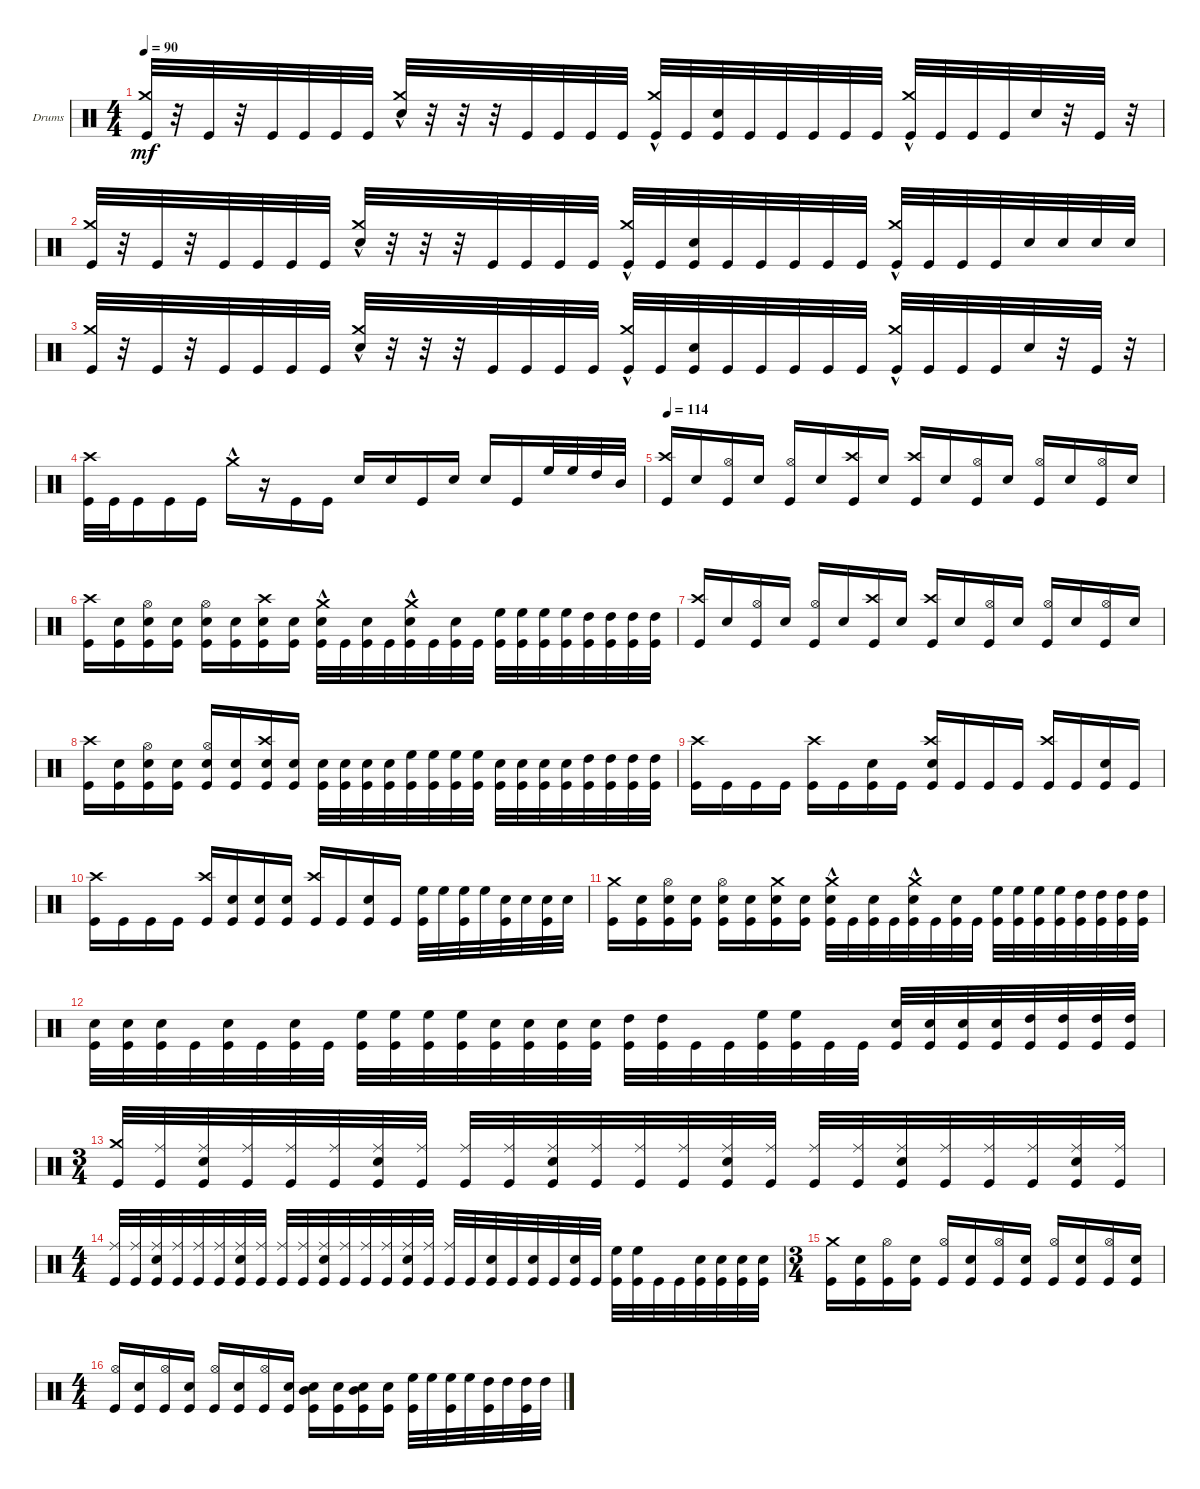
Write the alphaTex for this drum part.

\defaultSystemsLayout 4
\bracketExtendMode groupsimilarinstruments
\firstSystemTrackNameOrientation horizontal
\otherSystemsTrackNameOrientation horizontal
\track ("Drumkit" "Drums") {instrument percussion}
\staff {score}
\articulation defaults
\ts (4 4)
\tempo 90
\clef neutral
\ks c
("Kick (hit)" "Crash medium (hit)").32{dy mf beam invert} r.32 "Kick (hit)".32 r.32 "Kick (hit)".32 "Kick (hit)".32 "Kick (hit)".32 "Kick (hit)".32 ("Snare (hit) 2" "Crash medium (hit)"{hac}).32 r.32 r.32 r.32 "Kick (hit)".32 "Kick (hit)".32 "Kick (hit)".32 "Kick (hit)".32 ("Kick (hit)" "Crash medium (hit)"{hac}).32{beam invert} "Kick (hit)".32 ("Kick (hit)" "Snare (hit) 2").32 "Kick (hit)".32 "Kick (hit)".32 "Kick (hit)".32 "Kick (hit)".32 "Kick (hit)".32 ("Kick (hit)" "Crash medium (hit)"{hac}).32{beam invert} "Kick (hit)".32 "Kick (hit)".32 "Kick (hit)".32 "Snare (hit) 2".32 r.32 "Kick (hit)".32 r.32 |
("Kick (hit)" "Crash medium (hit)").32{beam invert} r.32 "Kick (hit)".32 r.32 "Kick (hit)".32 "Kick (hit)".32 "Kick (hit)".32 "Kick (hit)".32 ("Snare (hit) 2" "Crash medium (hit)"{hac}).32 r.32 r.32 r.32 "Kick (hit)".32 "Kick (hit)".32 "Kick (hit)".32 "Kick (hit)".32 ("Kick (hit)" "Crash medium (hit)"{hac}).32{beam invert} "Kick (hit)".32 ("Kick (hit)" "Snare (hit) 2").32 "Kick (hit)".32 "Kick (hit)".32 "Kick (hit)".32 "Kick (hit)".32 "Kick (hit)".32 ("Kick (hit)" "Crash medium (hit)"{hac}).32{beam invert} "Kick (hit)".32 "Kick (hit)".32 "Kick (hit)".32 "Snare (hit) 2".32 "Snare (hit) 2".32 "Snare (hit) 2".32 "Snare (hit) 2".32 |
("Kick (hit)" "Crash medium (hit)").32{beam invert} r.32 "Kick (hit)".32 r.32 "Kick (hit)".32 "Kick (hit)".32 "Kick (hit)".32 "Kick (hit)".32 ("Snare (hit) 2" "Crash medium (hit)"{hac}).32 r.32 r.32 r.32 "Kick (hit)".32 "Kick (hit)".32 "Kick (hit)".32 "Kick (hit)".32 ("Kick (hit)" "Crash medium (hit)"{hac}).32{beam invert} "Kick (hit)".32 ("Kick (hit)" "Snare (hit) 2").32 "Kick (hit)".32 "Kick (hit)".32 "Kick (hit)".32 "Kick (hit)".32 "Kick (hit)".32 ("Kick (hit)" "Crash medium (hit)"{hac}).32{beam invert} "Kick (hit)".32 "Kick (hit)".32 "Kick (hit)".32 "Snare (hit) 2".32 r.32 "Kick (hit)".32 r.32 |
("Kick (hit)" "Crash high (hit)").32 "Kick (hit)".32 "Kick (hit)".16 "Kick (hit)".16 "Kick (hit)".16 "Crash medium (hit)"{hac}.16 r.16 "Kick (hit)".16 "Kick (hit)".16 "Snare (hit) 2".16 "Snare (hit) 2".16 "Kick (hit)".16 "Snare (hit) 2".16 "Snare (hit) 2".16 "Kick (hit)".16 "High Floor Tom (hit)".32 "High Floor Tom (hit)".32 "High Tom (hit)".32 "Mid Tom (hit)".32 |
\tempo (114 0.00625)
("Kick (hit)" "Crash high (hit)").16{beam invert} "Snare (hit) 2".16 ("Kick (hit)" "Hi-Hat (open)").16 "Snare (hit) 2".16 ("Hi-Hat (open)" "Kick (hit)").16{beam invert} "Snare (hit) 2".16 ("Kick (hit)" "Crash high (hit)").16 "Snare (hit) 2".16 ("Kick (hit)" "Crash high (hit)").16{beam invert} "Snare (hit) 2".16 ("Kick (hit)" "Hi-Hat (open)").16 "Snare (hit) 2".16 ("Hi-Hat (open)" "Kick (hit)").16{beam invert} "Snare (hit) 2".16 ("Hi-Hat (open)" "Kick (hit)").16 "Snare (hit) 2".16 |
("Kick (hit)" "Crash high (hit)").16 ("Snare (hit) 2" "Kick (hit)").16 ("Kick (hit)" "Hi-Hat (open)" "Snare (hit) 2").16 ("Snare (hit) 2" "Kick (hit)").16 ("Hi-Hat (open)" "Kick (hit)" "Snare (hit) 2").16 ("Snare (hit) 2" "Kick (hit)").16 ("Kick (hit)" "Snare (hit) 2" "Crash high (hit)").16 ("Snare (hit) 2" "Kick (hit)").16 ("Snare (hit) 2" "Kick (hit)" "Crash medium (hit)"{hac}).32 "Kick (hit)".32 ("Kick (hit)" "Snare (hit) 2").32 "Kick (hit)".32 ("Kick (hit)" "Snare (hit) 2" "Crash medium (hit)"{hac}).32 "Kick (hit)".32 ("Kick (hit)" "Snare (hit) 2").32 "Kick (hit)".32 ("Kick (hit)" "High Floor Tom (hit)").32{beam invert} ("Kick (hit)" "High Floor Tom (hit)").32 ("Kick (hit)" "High Floor Tom (hit)").32 ("Kick (hit)" "High Floor Tom (hit)").32 ("Kick (hit)" "High Tom (hit)").32 ("Kick (hit)" "High Tom (hit)").32 ("Kick (hit)" "High Tom (hit)").32 ("Kick (hit)" "High Tom (hit)").32 |
("Kick (hit)" "Crash high (hit)").16{beam invert} "Snare (hit) 2".16 ("Kick (hit)" "Hi-Hat (open)").16 "Snare (hit) 2".16 ("Hi-Hat (open)" "Kick (hit)").16{beam invert} "Snare (hit) 2".16 ("Kick (hit)" "Crash high (hit)").16 "Snare (hit) 2".16 ("Kick (hit)" "Crash high (hit)").16{beam invert} "Snare (hit) 2".16 ("Kick (hit)" "Hi-Hat (open)").16 "Snare (hit) 2".16 ("Hi-Hat (open)" "Kick (hit)").16{beam invert} "Snare (hit) 2".16 ("Hi-Hat (open)" "Kick (hit)").16 "Snare (hit) 2".16 |
("Kick (hit)" "Crash high (hit)").16 ("Snare (hit) 2" "Kick (hit)").16 ("Kick (hit)" "Hi-Hat (open)" "Snare (hit) 2").16 ("Snare (hit) 2" "Kick (hit)").16 ("Hi-Hat (open)" "Kick (hit)" "Snare (hit) 2").16 ("Snare (hit) 2" "Kick (hit)").16 ("Kick (hit)" "Snare (hit) 2" "Crash high (hit)").16 ("Snare (hit) 2" "Kick (hit)").16 ("Snare (hit) 2" "Kick (hit)").32{beam invert} ("Kick (hit)" "Snare (hit) 2").32 ("Kick (hit)" "Snare (hit) 2").32 ("Kick (hit)" "Snare (hit) 2").32 ("Kick (hit)" "High Floor Tom (hit)").32 ("Kick (hit)" "High Floor Tom (hit)").32 ("Kick (hit)" "High Floor Tom (hit)").32 ("Kick (hit)" "High Floor Tom (hit)").32 ("Kick (hit)" "Snare (hit) 2").32{beam invert} ("Kick (hit)" "Snare (hit) 2").32 ("Kick (hit)" "Snare (hit) 2").32 ("Kick (hit)" "Snare (hit) 2").32 ("Kick (hit)" "High Tom (hit)").32 ("Kick (hit)" "High Tom (hit)").32 ("Kick (hit)" "High Tom (hit)").32 ("Kick (hit)" "High Tom (hit)").32 |
("Kick (hit)" "Crash high (hit)").16 "Kick (hit)".16 "Kick (hit)".16 "Kick (hit)".16 ("Kick (hit)" "Crash high (hit)").16 "Kick (hit)".16 ("Kick (hit)" "Snare (hit) 2").16 "Kick (hit)".16 ("Kick (hit)" "Snare (hit) 2" "Crash high (hit)").16 "Kick (hit)".16 "Kick (hit)".16 "Kick (hit)".16 ("Kick (hit)" "Crash high (hit)").16{beam invert} "Kick (hit)".16 ("Kick (hit)" "Snare (hit) 2").16 "Kick (hit)".16 |
("Kick (hit)" "Crash high (hit)").16 "Kick (hit)".16 "Kick (hit)".16 "Kick (hit)".16 ("Kick (hit)" "Crash high (hit)").16 ("Kick (hit)" "Snare (hit) 2").16 ("Kick (hit)" "Snare (hit) 2").16 ("Kick (hit)" "Snare (hit) 2").16 ("Kick (hit)" "Crash high (hit)").16{beam invert} "Kick (hit)".16 ("Kick (hit)" "Snare (hit) 2").16 "Kick (hit)".16 ("High Floor Tom (hit)" "Kick (hit)").32{beam invert} "High Floor Tom (hit)".32 ("High Floor Tom (hit)" "Kick (hit)").32 "High Floor Tom (hit)".32 ("Snare (hit) 2" "Kick (hit)").32 "Snare (hit) 2".32 ("Snare (hit) 2" "Kick (hit)").32 "Snare (hit) 2".32 |
("Kick (hit)" "Crash medium (hit)").16 ("Kick (hit)" "Snare (hit) 2").16 ("Kick (hit)" "Snare (hit) 2" "Hi-Hat (open)").16 ("Kick (hit)" "Snare (hit) 2").16 ("Hi-Hat (open)" "Snare (hit) 2" "Kick (hit)").16 ("Snare (hit) 2" "Kick (hit)").16 ("Snare (hit) 2" "Crash medium (hit)" "Kick (hit)").16 ("Snare (hit) 2" "Kick (hit)").16 ("Kick (hit)" "Snare (hit) 2" "Crash medium (hit)"{hac}).32 "Kick (hit)".32 ("Kick (hit)" "Snare (hit) 2").32 "Kick (hit)".32 ("Kick (hit)" "Snare (hit) 2" "Crash medium (hit)"{hac}).32 "Kick (hit)".32 ("Kick (hit)" "Snare (hit) 2").32 "Kick (hit)".32 ("High Floor Tom (hit)" "Kick (hit)").32{beam invert} ("High Floor Tom (hit)" "Kick (hit)").32 ("High Floor Tom (hit)" "Kick (hit)").32 ("High Floor Tom (hit)" "Kick (hit)").32 ("High Tom (hit)" "Kick (hit)").32 ("High Tom (hit)" "Kick (hit)").32 ("High Tom (hit)" "Kick (hit)").32 ("High Tom (hit)" "Kick (hit)").32 |
("Kick (hit)" "Snare (hit) 2").32 ("Kick (hit)" "Snare (hit) 2").32 ("Kick (hit)" "Snare (hit) 2").32 "Kick (hit)".32 ("Kick (hit)" "Snare (hit) 2").32 "Kick (hit)".32 ("Kick (hit)" "Snare (hit) 2").32 "Kick (hit)".32 ("High Floor Tom (hit)" "Kick (hit)").32{beam invert} ("High Floor Tom (hit)" "Kick (hit)").32 ("High Floor Tom (hit)" "Kick (hit)").32 ("High Floor Tom (hit)" "Kick (hit)").32 ("Snare (hit) 2" "Kick (hit)").32 ("Snare (hit) 2" "Kick (hit)").32 ("Snare (hit) 2" "Kick (hit)").32 ("Snare (hit) 2" "Kick (hit)").32 ("Kick (hit)" "High Tom (hit)").32{beam invert} ("Kick (hit)" "High Tom (hit)").32 "Kick (hit)".32 "Kick (hit)".32 ("Kick (hit)" "High Floor Tom (hit)").32 ("Kick (hit)" "High Floor Tom (hit)").32 "Kick (hit)".32 "Kick (hit)".32 ("Snare (hit) 2" "Kick (hit)").32 ("Snare (hit) 2" "Kick (hit)").32 ("Snare (hit) 2" "Kick (hit)").32 ("Snare (hit) 2" "Kick (hit)").32 ("High Tom (hit)" "Kick (hit)").32 ("High Tom (hit)" "Kick (hit)").32 ("High Tom (hit)" "Kick (hit)").32 ("High Tom (hit)" "Kick (hit)").32 |
\ts (3 4)
("Kick (hit)" "Crash medium (hit)").32{beam invert} ("Kick (hit)" "Ride (middle)").32 ("Kick (hit)" "Snare (hit) 2" "Ride (middle)").32 ("Kick (hit)" "Ride (middle)").32 ("Kick (hit)" "Ride (middle)").32 ("Kick (hit)" "Ride (middle)").32 ("Kick (hit)" "Snare (hit) 2" "Ride (middle)").32 ("Kick (hit)" "Ride (middle)").32 ("Kick (hit)" "Ride (middle)").32{beam invert} ("Kick (hit)" "Ride (middle)").32 ("Kick (hit)" "Snare (hit) 2" "Ride (middle)").32 ("Kick (hit)" "Ride (middle)").32 ("Kick (hit)" "Ride (middle)").32 ("Kick (hit)" "Ride (middle)").32 ("Kick (hit)" "Snare (hit) 2" "Ride (middle)").32 ("Kick (hit)" "Ride (middle)").32 ("Kick (hit)" "Ride (middle)").32{beam invert} ("Kick (hit)" "Ride (middle)").32 ("Kick (hit)" "Snare (hit) 2" "Ride (middle)").32 ("Kick (hit)" "Ride (middle)").32 ("Kick (hit)" "Ride (middle)").32 ("Kick (hit)" "Ride (middle)").32 ("Kick (hit)" "Snare (hit) 2" "Ride (middle)").32 ("Kick (hit)" "Ride (middle)").32 |
\ts (4 4)
("Kick (hit)" "Ride (middle)").32{beam invert} ("Kick (hit)" "Ride (middle)").32 ("Kick (hit)" "Snare (hit) 2" "Ride (middle)").32 ("Kick (hit)" "Ride (middle)").32 ("Kick (hit)" "Ride (middle)").32 ("Kick (hit)" "Ride (middle)").32 ("Kick (hit)" "Snare (hit) 2" "Ride (middle)").32 ("Kick (hit)" "Ride (middle)").32 ("Kick (hit)" "Ride (middle)").32{beam invert} ("Kick (hit)" "Ride (middle)").32 ("Kick (hit)" "Snare (hit) 2" "Ride (middle)").32 ("Kick (hit)" "Ride (middle)").32 ("Kick (hit)" "Ride (middle)").32 ("Kick (hit)" "Ride (middle)").32 ("Kick (hit)" "Snare (hit) 2" "Ride (middle)").32 ("Kick (hit)" "Ride (middle)").32 ("Kick (hit)" "Ride (middle)").32{beam invert} "Kick (hit)".32 ("Kick (hit)" "Snare (hit) 2").32 "Kick (hit)".32 ("Kick (hit)" "Snare (hit) 2").32 "Kick (hit)".32 ("Kick (hit)" "Snare (hit) 2").32 "Kick (hit)".32 ("Kick (hit)" "High Floor Tom (hit)").32{beam invert} ("Kick (hit)" "High Floor Tom (hit)").32 "Kick (hit)".32 "Kick (hit)".32 ("Kick (hit)" "Snare (hit) 2").32 ("Kick (hit)" "Snare (hit) 2").32 ("Kick (hit)" "Snare (hit) 2").32 ("Kick (hit)" "Snare (hit) 2").32 |
\ts (3 4)
("Kick (hit)" "Crash medium (hit)").16 ("Kick (hit)" "Snare (hit) 2").16 ("Kick (hit)" "Hi-Hat (open)").16 ("Kick (hit)" "Snare (hit) 2").16 ("Kick (hit)" "Hi-Hat (open)").16 ("Kick (hit)" "Snare (hit) 2").16 ("Kick (hit)" "Hi-Hat (open)").16 ("Kick (hit)" "Snare (hit) 2").16 ("Kick (hit)" "Hi-Hat (open)").16{beam invert} ("Kick (hit)" "Snare (hit) 2").16 ("Kick (hit)" "Hi-Hat (open)").16 ("Kick (hit)" "Snare (hit) 2").16 |
\ts (4 4)
("Kick (hit)" "Hi-Hat (open)").16{beam invert} ("Kick (hit)" "Snare (hit) 2").16 ("Kick (hit)" "Hi-Hat (open)").16 ("Kick (hit)" "Snare (hit) 2").16 ("Kick (hit)" "Hi-Hat (open)").16{beam invert} ("Kick (hit)" "Snare (hit) 2").16 ("Kick (hit)" "Hi-Hat (open)").16 ("Kick (hit)" "Snare (hit) 2").16 ("Kick (hit)" "Mid Tom (hit)" "Snare (hit) 2").16 ("Kick (hit)" "Snare (hit) 2").16 ("Kick (hit)" "Snare (hit) 2" "Mid Tom (hit)").16 ("Kick (hit)" "Snare (hit) 2").16 ("High Floor Tom (hit)" "Kick (hit)").32{beam invert} "High Floor Tom (hit)".32 ("High Floor Tom (hit)" "Kick (hit)").32 "High Floor Tom (hit)".32 ("High Tom (hit)" "Kick (hit)").32 "High Tom (hit)".32 ("High Tom (hit)" "Kick (hit)").32 "High Tom (hit)".32
